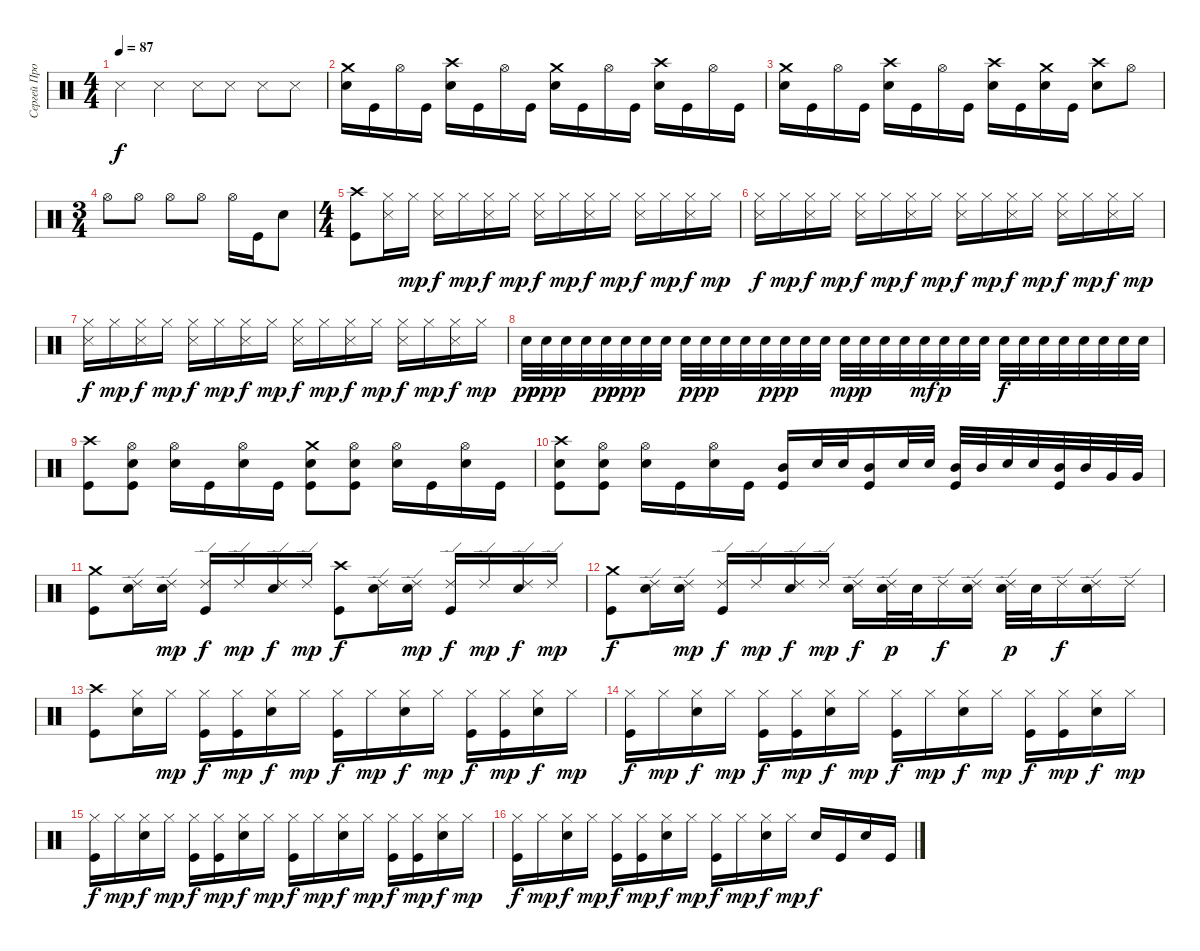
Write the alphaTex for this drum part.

\track ("Сергей Прокофьев" "Сергей Про") {instrument percussion}
\staff {score}
\articulation defaults
\ts (4 4)
\tempo 87
\clef neutral
\ks c "Metronome (hit)".4{dy f} "Metronome (hit)".4 "Metronome (hit)".8 "Metronome (hit)".8 "Metronome (hit)".8 "Metronome (hit)".8
|
("Crash medium (hit)" "Electric Snare (hit)").16 "Kick (hit)".16 "Hi-Hat (open)".16 "Kick (hit)".16 ("Crash high (hit)" "Electric Snare (hit)").16 "Kick (hit)".16 "Hi-Hat (open)".16 "Kick (hit)".16 ("Crash medium (hit)" "Electric Snare (hit)").16 "Kick (hit)".16 "Hi-Hat (open)".16 "Kick (hit)".16 ("Crash high (hit)" "Electric Snare (hit)").16 "Kick (hit)".16 "Hi-Hat (open)".16 "Kick (hit)".16 |
("Crash medium (hit)" "Electric Snare (hit)").16 "Kick (hit)".16 "Hi-Hat (open)".16 "Kick (hit)".16 ("Crash high (hit)" "Electric Snare (hit)").16 "Kick (hit)".16 "Hi-Hat (open)".16 "Kick (hit)".16 ("Crash high (hit)" "Electric Snare (hit)").16 "Kick (hit)".16 ("Crash medium (hit)" "Electric Snare (hit)").16 "Kick (hit)".16 ("Crash high (hit)" "Electric Snare (hit)").8 "Hi-Hat (open)".8 |
\ts (3 4)
"Hi-Hat (open)".8 "Hi-Hat (open)".8 "Hi-Hat (open)".8 "Hi-Hat (open)".8 "Hi-Hat (open)".16 "Kick (hit)".16 "Electric Snare (hit)".8 |
\ts (4 4)
("Crash high (hit)" "Kick (hit)").8 ("Hi-Hat (closed)" "Snare (side stick) 3").16 "Hi-Hat (closed)".16{dy mp} ("Hi-Hat (closed)" "Snare (side stick) 3").16{dy f} "Hi-Hat (closed)".16{dy mp} ("Hi-Hat (closed)" "Snare (side stick) 3").16{dy f} "Hi-Hat (closed)".16{dy mp} ("Hi-Hat (closed)" "Snare (side stick) 3").16{dy f} "Hi-Hat (closed)".16{dy mp} ("Hi-Hat (closed)" "Snare (side stick) 3").16{dy f} "Hi-Hat (closed)".16{dy mp} ("Hi-Hat (closed)" "Snare (side stick) 3").16{dy f} "Hi-Hat (closed)".16{dy mp} ("Hi-Hat (closed)" "Snare (side stick) 3").16{dy f} "Hi-Hat (closed)".16{dy mp} |
("Hi-Hat (closed)" "Snare (side stick) 3").16{dy f} "Hi-Hat (closed)".16{dy mp} ("Hi-Hat (closed)" "Snare (side stick) 3").16{dy f} "Hi-Hat (closed)".16{dy mp} ("Hi-Hat (closed)" "Snare (side stick) 3").16{dy f} "Hi-Hat (closed)".16{dy mp} ("Hi-Hat (closed)" "Snare (side stick) 3").16{dy f} "Hi-Hat (closed)".16{dy mp} ("Hi-Hat (closed)" "Snare (side stick) 3").16{dy f} "Hi-Hat (closed)".16{dy mp} ("Hi-Hat (closed)" "Snare (side stick) 3").16{dy f} "Hi-Hat (closed)".16{dy mp} ("Hi-Hat (closed)" "Snare (side stick) 3").16{dy f} "Hi-Hat (closed)".16{dy mp} ("Hi-Hat (closed)" "Snare (side stick) 3").16{dy f} "Hi-Hat (closed)".16{dy mp} |
("Hi-Hat (closed)" "Snare (side stick) 3").16{dy f} "Hi-Hat (closed)".16{dy mp} ("Hi-Hat (closed)" "Snare (side stick) 3").16{dy f} "Hi-Hat (closed)".16{dy mp} ("Hi-Hat (closed)" "Snare (side stick) 3").16{dy f} "Hi-Hat (closed)".16{dy mp} ("Hi-Hat (closed)" "Snare (side stick) 3").16{dy f} "Hi-Hat (closed)".16{dy mp} ("Hi-Hat (closed)" "Snare (side stick) 3").16{dy f} "Hi-Hat (closed)".16{dy mp} ("Hi-Hat (closed)" "Snare (side stick) 3").16{dy f} "Hi-Hat (closed)".16{dy mp} ("Hi-Hat (closed)" "Snare (side stick) 3").16{dy f} "Hi-Hat (closed)".16{dy mp} ("Hi-Hat (closed)" "Snare (side stick) 3").16{dy f} "Hi-Hat (closed)".16{dy mp} |
"Electric Snare (hit)".32{dy pp} "Electric Snare (hit)".32{dy ppp} "Electric Snare (hit)".32 "Electric Snare (hit)".32 "Electric Snare (hit)".32{dy pp} "Electric Snare (hit)".32{dy ppp} "Electric Snare (hit)".32 "Electric Snare (hit)".32 "Electric Snare (hit)".32{dy p} "Electric Snare (hit)".32{dy pp} "Electric Snare (hit)".32 "Electric Snare (hit)".32 "Electric Snare (hit)".32{dy p} "Electric Snare (hit)".32{dy pp} "Electric Snare (hit)".32 "Electric Snare (hit)".32 "Electric Snare (hit)".32{dy mp} "Electric Snare (hit)".32{dy p} "Electric Snare (hit)".32 "Electric Snare (hit)".32 "Electric Snare (hit)".32{dy mf} "Electric Snare (hit)".32{dy p} "Electric Snare (hit)".32 "Electric Snare (hit)".32 "Electric Snare (hit)".32{dy f} "Electric Snare (hit)".32 "Electric Snare (hit)".32 "Electric Snare (hit)".32 "Electric Snare (hit)".32 "Electric Snare (hit)".32 "Electric Snare (hit)".32 "Electric Snare (hit)".32 |
("Crash high (hit)" "Kick (hit)").8 ("Hi-Hat (open)" "Electric Snare (hit)" "Kick (hit)").8 ("Hi-Hat (open)" "Electric Snare (hit)").16 "Kick (hit)".16 ("Hi-Hat (open)" "Electric Snare (hit)").16 "Kick (hit)".16 ("Crash medium (hit)" "Electric Snare (hit)" "Kick (hit)").8 ("Hi-Hat (open)" "Electric Snare (hit)" "Kick (hit)").8 ("Hi-Hat (open)" "Electric Snare (hit)").16 "Kick (hit)".16 ("Hi-Hat (open)" "Electric Snare (hit)").16 "Kick (hit)".16 |
("Crash high (hit)" "Electric Snare (hit)" "Kick (hit)").8 ("Hi-Hat (open)" "Electric Snare (hit)" "Kick (hit)").8 ("Hi-Hat (open)" "Electric Snare (hit)").16 "Kick (hit)".16 ("Hi-Hat (open)" "Electric Snare (hit)").16 "Kick (hit)".16 ("Mid Tom (hit)" "Kick (hit)").16 "Electric Snare (hit)".32 "Electric Snare (hit)".32 ("Mid Tom (hit)" "Kick (hit)").16 "Electric Snare (hit)".32 "Electric Snare (hit)".32 ("Mid Tom (hit)" "Kick (hit)").32 "Mid Tom (hit)".32 "Electric Snare (hit)".32 "Electric Snare (hit)".32 ("Mid Tom (hit)" "Kick (hit)").32 "Mid Tom (hit)".32 "Very Low Tom (hit)".32 "Very Low Tom (hit)".32 |
("Crash medium (hit)" "Kick (hit)").8 ("Ride (edge) 2" "Electric Snare (hit)").16 ("Ride (edge) 2" "Electric Snare (hit)").16{dy mp} ("Ride (edge) 2" "Kick (hit)").16{dy f} "Ride (edge) 2".16{dy mp} ("Ride (edge) 2" "Electric Snare (hit)").16{dy f} "Ride (edge) 2".16{dy mp} ("Crash high (hit)" "Kick (hit)").8{dy f} ("Ride (edge) 2" "Electric Snare (hit)").16 ("Ride (edge) 2" "Electric Snare (hit)").16{dy mp} ("Ride (edge) 2" "Kick (hit)").16{dy f} "Ride (edge) 2".16{dy mp} ("Ride (edge) 2" "Electric Snare (hit)").16{dy f} "Ride (edge) 2".16{dy mp} |
("Crash medium (hit)" "Kick (hit)").8{dy f} ("Ride (edge) 2" "Electric Snare (hit)").16 ("Ride (edge) 2" "Electric Snare (hit)").16{dy mp} ("Ride (edge) 2" "Kick (hit)").16{dy f} "Ride (edge) 2".16{dy mp} ("Ride (edge) 2" "Electric Snare (hit)").16{dy f} "Ride (edge) 2".16{dy mp} ("Ride (edge) 2" "Electric Snare (hit)").16{dy f} ("Ride (edge) 2" "Electric Snare (hit)").32{dy p} "Electric Snare (hit)".32 "Ride (edge) 2".16{dy f} ("Ride (edge) 2" "Electric Snare (hit)").16 ("Ride (edge) 2" "Electric Snare (hit)").32{dy p} "Electric Snare (hit)".32 "Ride (edge) 2".16{dy f} ("Ride (edge) 2" "Electric Snare (hit)").16 "Ride (edge) 2".16 |
("Crash high (hit)" "Kick (hit)").8 ("Hi-Hat (closed)" "Electric Snare (hit)").16 "Hi-Hat (closed)".16{dy mp} ("Hi-Hat (closed)" "Kick (hit)").16{dy f} ("Hi-Hat (closed)" "Kick (hit)").16{dy mp} ("Hi-Hat (closed)" "Electric Snare (hit)").16{dy f} "Hi-Hat (closed)".16{dy mp} ("Hi-Hat (closed)" "Kick (hit)").16{dy f} "Hi-Hat (closed)".16{dy mp} ("Hi-Hat (closed)" "Electric Snare (hit)").16{dy f} "Hi-Hat (closed)".16{dy mp} ("Hi-Hat (closed)" "Kick (hit)").16{dy f} ("Hi-Hat (closed)" "Kick (hit)").16{dy mp} ("Hi-Hat (closed)" "Electric Snare (hit)").16{dy f} "Hi-Hat (closed)".16{dy mp} |
("Hi-Hat (closed)" "Kick (hit)").16{dy f} "Hi-Hat (closed)".16{dy mp} ("Hi-Hat (closed)" "Electric Snare (hit)").16{dy f} "Hi-Hat (closed)".16{dy mp} ("Hi-Hat (closed)" "Kick (hit)").16{dy f} ("Hi-Hat (closed)" "Kick (hit)").16{dy mp} ("Hi-Hat (closed)" "Electric Snare (hit)").16{dy f} "Hi-Hat (closed)".16{dy mp} ("Hi-Hat (closed)" "Kick (hit)").16{dy f} "Hi-Hat (closed)".16{dy mp} ("Hi-Hat (closed)" "Electric Snare (hit)").16{dy f} "Hi-Hat (closed)".16{dy mp} ("Hi-Hat (closed)" "Kick (hit)").16{dy f} ("Hi-Hat (closed)" "Kick (hit)").16{dy mp} ("Hi-Hat (closed)" "Electric Snare (hit)").16{dy f} "Hi-Hat (closed)".16{dy mp} |
("Hi-Hat (closed)" "Kick (hit)").16{dy f} "Hi-Hat (closed)".16{dy mp} ("Hi-Hat (closed)" "Electric Snare (hit)").16{dy f} "Hi-Hat (closed)".16{dy mp} ("Hi-Hat (closed)" "Kick (hit)").16{dy f} ("Hi-Hat (closed)" "Kick (hit)").16{dy mp} ("Hi-Hat (closed)" "Electric Snare (hit)").16{dy f} "Hi-Hat (closed)".16{dy mp} ("Hi-Hat (closed)" "Kick (hit)").16{dy f} "Hi-Hat (closed)".16{dy mp} ("Hi-Hat (closed)" "Electric Snare (hit)").16{dy f} "Hi-Hat (closed)".16{dy mp} ("Hi-Hat (closed)" "Kick (hit)").16{dy f} ("Hi-Hat (closed)" "Kick (hit)").16{dy mp} ("Hi-Hat (closed)" "Electric Snare (hit)").16{dy f} "Hi-Hat (closed)".16{dy mp} |
("Hi-Hat (closed)" "Kick (hit)").16{dy f} "Hi-Hat (closed)".16{dy mp} ("Hi-Hat (closed)" "Electric Snare (hit)").16{dy f} "Hi-Hat (closed)".16{dy mp} ("Hi-Hat (closed)" "Kick (hit)").16{dy f} ("Hi-Hat (closed)" "Kick (hit)").16{dy mp} ("Hi-Hat (closed)" "Electric Snare (hit)").16{dy f} "Hi-Hat (closed)".16{dy mp} ("Hi-Hat (closed)" "Kick (hit)").16{dy f} "Hi-Hat (closed)".16{dy mp} ("Hi-Hat (closed)" "Electric Snare (hit)").16{dy f} "Hi-Hat (closed)".16{dy mp} "Electric Snare (hit)".16{dy f} "Kick (hit)".16 "Electric Snare (hit)".16 "Kick (hit)".16
